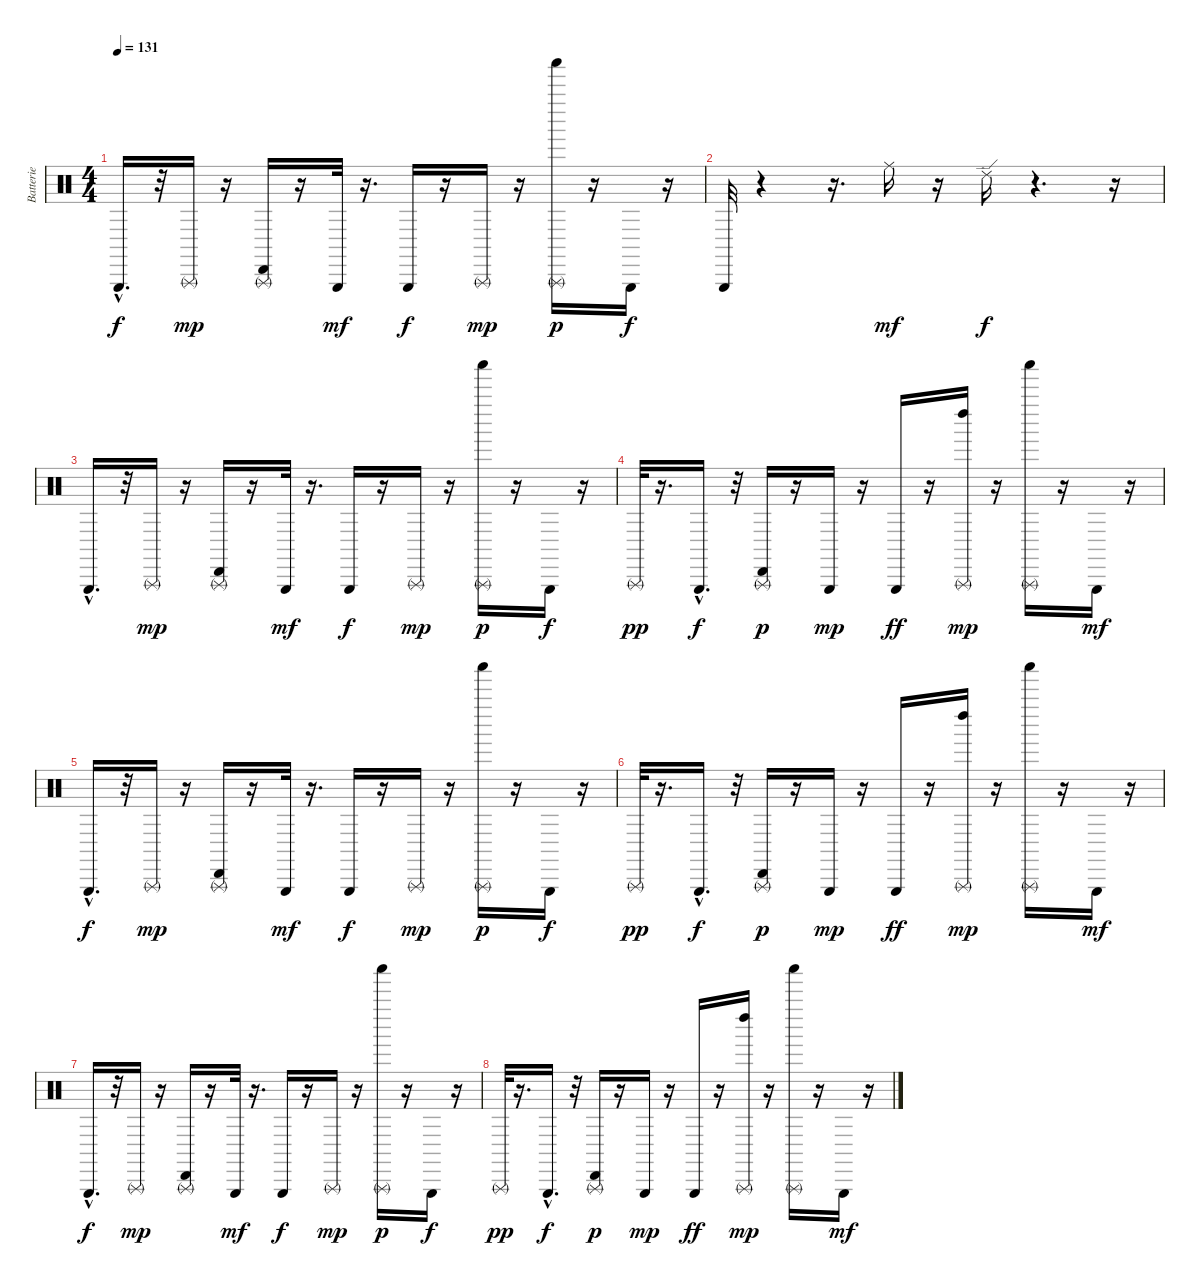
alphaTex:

\track ("Batterie" "Batterie") {instrument percussion}
\staff {score}
\articulation defaults
\ts (4 4)
\tempo 131
\clef neutral
\ks c "Triangle (hit)"{hac}.16{d dy f}
r.32 "Triangle (rnute)".16{dy mp} r.16 ("Cabasa (hit)" "Triangle (rnute)").16 r.16 "Triangle (hit)".32{dy mf} r.16{d} "Triangle (hit)".16{dy f} r.16 "Triangle (rnute)".16{dy mp} r.16 ("Shaker (hit)" "Triangle (rnute)").16{dy p} r.16 "Triangle (hit)".16{dy f} r.16 |
"Triangle (hit)".32 r.4 r.16{d} "Ride (middle)".16{dy mf} r.16 "Ride (edge) 2".16{dy f} r.4{d} r.16 |
"Triangle (hit)"{hac}.16{d} r.32 "Triangle (rnute)".16{dy mp} r.16 ("Cabasa (hit)" "Triangle (rnute)").16 r.16 "Triangle (hit)".32{dy mf} r.16{d} "Triangle (hit)".16{dy f} r.16 "Triangle (rnute)".16{dy mp} r.16 ("Shaker (hit)" "Triangle (rnute)").16{dy p} r.16 "Triangle (hit)".16{dy f} r.16 |
"Triangle (rnute)".32{dy pp} r.16{d} "Triangle (hit)"{hac}.16{d dy f} r.32 ("Cabasa (hit)" "Triangle (rnute)").16{dy p} r.16 "Triangle (hit)".16{dy mp} r.16 "Triangle (hit)".16{dy ff} r.16 ("Left Maraca (hit)" "Triangle (rnute)").16{dy mp} r.16 ("Shaker (hit)" "Triangle (rnute)").16 r.16 "Triangle (hit)".16{dy mf} r.16 |
"Triangle (hit)"{hac}.16{d dy f} r.32 "Triangle (rnute)".16{dy mp} r.16 ("Cabasa (hit)" "Triangle (rnute)").16 r.16 "Triangle (hit)".32{dy mf} r.16{d} "Triangle (hit)".16{dy f} r.16 "Triangle (rnute)".16{dy mp} r.16 ("Shaker (hit)" "Triangle (rnute)").16{dy p} r.16 "Triangle (hit)".16{dy f} r.16 |
"Triangle (rnute)".32{dy pp} r.16{d} "Triangle (hit)"{hac}.16{d dy f} r.32 ("Cabasa (hit)" "Triangle (rnute)").16{dy p} r.16 "Triangle (hit)".16{dy mp} r.16 "Triangle (hit)".16{dy ff} r.16 ("Left Maraca (hit)" "Triangle (rnute)").16{dy mp} r.16 ("Shaker (hit)" "Triangle (rnute)").16 r.16 "Triangle (hit)".16{dy mf} r.16 |
"Triangle (hit)"{hac}.16{d dy f} r.32 "Triangle (rnute)".16{dy mp} r.16 ("Cabasa (hit)" "Triangle (rnute)").16 r.16 "Triangle (hit)".32{dy mf} r.16{d} "Triangle (hit)".16{dy f} r.16 "Triangle (rnute)".16{dy mp} r.16 ("Shaker (hit)" "Triangle (rnute)").16{dy p} r.16 "Triangle (hit)".16{dy f} r.16 |
"Triangle (rnute)".32{dy pp} r.16{d} "Triangle (hit)"{hac}.16{d dy f} r.32 ("Cabasa (hit)" "Triangle (rnute)").16{dy p} r.16 "Triangle (hit)".16{dy mp} r.16 "Triangle (hit)".16{dy ff} r.16 ("Left Maraca (hit)" "Triangle (rnute)").16{dy mp} r.16 ("Shaker (hit)" "Triangle (rnute)").16 r.16 "Triangle (hit)".16{dy mf} r.16
